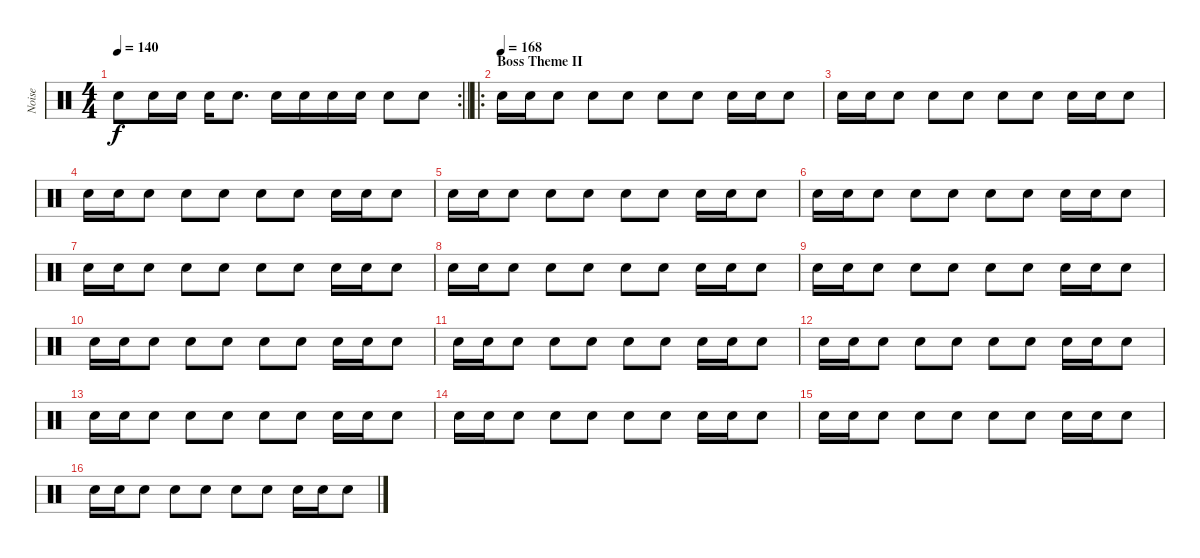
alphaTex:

\track ("Noise" "Noise") {instrument percussion}
\staff {score}
\articulation defaults
\rc 2
\ts (4 4)
\tempo 140
\clef neutral
\barLineRight lightlight
\ks c "Snare (hit) 2".8{dy f} "Snare (hit) 2".16 "Snare (hit) 2".16 "Snare (hit) 2".16 "Snare (hit) 2".8{d} "Snare (hit) 2".16 "Snare (hit) 2".16 "Snare (hit) 2".16 "Snare (hit) 2".16 "Snare (hit) 2".8 "Snare (hit) 2".8
|
\ro
\section ("" "Boss Theme II")
\tempo (168)
"Snare (hit) 2".16{volume 13} "Snare (hit) 2".16 "Snare (hit) 2".8 "Snare (hit) 2".8 "Snare (hit) 2".8 "Snare (hit) 2".8 "Snare (hit) 2".8 "Snare (hit) 2".16 "Snare (hit) 2".16 "Snare (hit) 2".8 |
"Snare (hit) 2".16 "Snare (hit) 2".16 "Snare (hit) 2".8 "Snare (hit) 2".8 "Snare (hit) 2".8 "Snare (hit) 2".8 "Snare (hit) 2".8 "Snare (hit) 2".16 "Snare (hit) 2".16 "Snare (hit) 2".8 |
"Snare (hit) 2".16 "Snare (hit) 2".16 "Snare (hit) 2".8 "Snare (hit) 2".8 "Snare (hit) 2".8 "Snare (hit) 2".8 "Snare (hit) 2".8 "Snare (hit) 2".16 "Snare (hit) 2".16 "Snare (hit) 2".8 |
"Snare (hit) 2".16 "Snare (hit) 2".16 "Snare (hit) 2".8 "Snare (hit) 2".8 "Snare (hit) 2".8 "Snare (hit) 2".8 "Snare (hit) 2".8 "Snare (hit) 2".16 "Snare (hit) 2".16 "Snare (hit) 2".8 |
"Snare (hit) 2".16 "Snare (hit) 2".16 "Snare (hit) 2".8 "Snare (hit) 2".8 "Snare (hit) 2".8 "Snare (hit) 2".8 "Snare (hit) 2".8 "Snare (hit) 2".16 "Snare (hit) 2".16 "Snare (hit) 2".8 |
"Snare (hit) 2".16 "Snare (hit) 2".16 "Snare (hit) 2".8 "Snare (hit) 2".8 "Snare (hit) 2".8 "Snare (hit) 2".8 "Snare (hit) 2".8 "Snare (hit) 2".16 "Snare (hit) 2".16 "Snare (hit) 2".8 |
"Snare (hit) 2".16 "Snare (hit) 2".16 "Snare (hit) 2".8 "Snare (hit) 2".8 "Snare (hit) 2".8 "Snare (hit) 2".8 "Snare (hit) 2".8 "Snare (hit) 2".16 "Snare (hit) 2".16 "Snare (hit) 2".8 |
"Snare (hit) 2".16 "Snare (hit) 2".16 "Snare (hit) 2".8 "Snare (hit) 2".8 "Snare (hit) 2".8 "Snare (hit) 2".8 "Snare (hit) 2".8 "Snare (hit) 2".16 "Snare (hit) 2".16 "Snare (hit) 2".8 |
"Snare (hit) 2".16 "Snare (hit) 2".16 "Snare (hit) 2".8 "Snare (hit) 2".8 "Snare (hit) 2".8 "Snare (hit) 2".8 "Snare (hit) 2".8 "Snare (hit) 2".16 "Snare (hit) 2".16 "Snare (hit) 2".8 |
"Snare (hit) 2".16 "Snare (hit) 2".16 "Snare (hit) 2".8 "Snare (hit) 2".8 "Snare (hit) 2".8 "Snare (hit) 2".8 "Snare (hit) 2".8 "Snare (hit) 2".16 "Snare (hit) 2".16 "Snare (hit) 2".8 |
"Snare (hit) 2".16 "Snare (hit) 2".16 "Snare (hit) 2".8 "Snare (hit) 2".8 "Snare (hit) 2".8 "Snare (hit) 2".8 "Snare (hit) 2".8 "Snare (hit) 2".16 "Snare (hit) 2".16 "Snare (hit) 2".8 |
"Snare (hit) 2".16 "Snare (hit) 2".16 "Snare (hit) 2".8 "Snare (hit) 2".8 "Snare (hit) 2".8 "Snare (hit) 2".8 "Snare (hit) 2".8 "Snare (hit) 2".16 "Snare (hit) 2".16 "Snare (hit) 2".8 |
"Snare (hit) 2".16 "Snare (hit) 2".16 "Snare (hit) 2".8 "Snare (hit) 2".8 "Snare (hit) 2".8 "Snare (hit) 2".8 "Snare (hit) 2".8 "Snare (hit) 2".16 "Snare (hit) 2".16 "Snare (hit) 2".8 |
"Snare (hit) 2".16 "Snare (hit) 2".16 "Snare (hit) 2".8 "Snare (hit) 2".8 "Snare (hit) 2".8 "Snare (hit) 2".8 "Snare (hit) 2".8 "Snare (hit) 2".16 "Snare (hit) 2".16 "Snare (hit) 2".8 |
"Snare (hit) 2".16 "Snare (hit) 2".16 "Snare (hit) 2".8 "Snare (hit) 2".8 "Snare (hit) 2".8 "Snare (hit) 2".8 "Snare (hit) 2".8 "Snare (hit) 2".16 "Snare (hit) 2".16 "Snare (hit) 2".8
